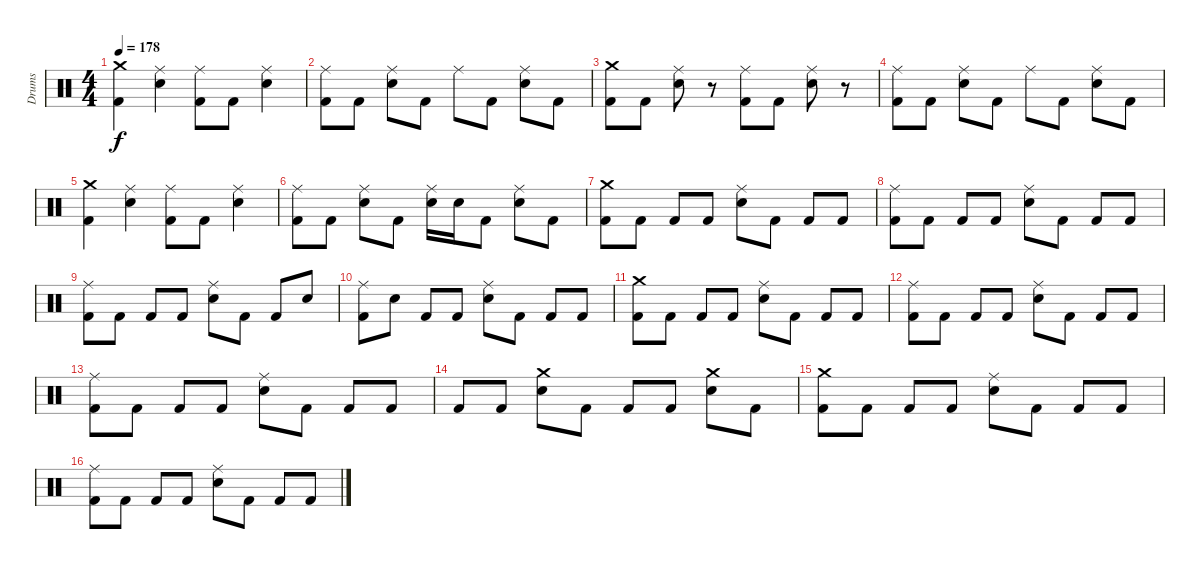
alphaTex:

\track ("Drums" "Drums") {instrument percussion}
\staff {score}
\articulation defaults
\ts (4 4)
\tempo 178
\clef neutral
\ks c
("Crash medium (hit)" "Kick (hit) 2").4{dy f} ("Ride (middle)" "Electric Snare (hit)").4 ("Ride (middle)" "Kick (hit) 2").8 "Kick (hit) 2".8 ("Ride (middle)" "Electric Snare (hit)").4 |
("Ride (middle)" "Kick (hit) 2").8 "Kick (hit) 2".8 ("Ride (middle)" "Electric Snare (hit)").8 "Kick (hit) 2".8 "Ride (middle)".8 "Kick (hit) 2".8 ("Ride (middle)" "Electric Snare (hit)").8 "Kick (hit) 2".8 |
("Crash medium (hit)" "Kick (hit) 2").8 "Kick (hit) 2".8 ("Ride (middle)" "Electric Snare (hit)").8 r.8 ("Ride (middle)" "Kick (hit) 2").8 "Kick (hit) 2".8 ("Ride (middle)" "Electric Snare (hit)").8 r.8 |
("Ride (middle)" "Kick (hit) 2").8 "Kick (hit) 2".8 ("Ride (middle)" "Electric Snare (hit)").8 "Kick (hit) 2".8 "Ride (middle)".8 "Kick (hit) 2".8 ("Ride (middle)" "Electric Snare (hit)").8 "Kick (hit) 2".8 |
("Crash medium (hit)" "Kick (hit) 2").4 ("Ride (middle)" "Electric Snare (hit)").4 ("Ride (middle)" "Kick (hit) 2").8 "Kick (hit) 2".8 ("Ride (middle)" "Electric Snare (hit)").4 |
("Ride (middle)" "Kick (hit) 2").8 "Kick (hit) 2".8 ("Ride (middle)" "Electric Snare (hit)").8 "Kick (hit) 2".8 ("Ride (middle)" "Electric Snare (hit)").16 "Electric Snare (hit)".16 "Kick (hit) 2".8 ("Ride (middle)" "Electric Snare (hit)").8 "Kick (hit) 2".8 |
\section ("" "")
("Crash medium (hit)" "Kick (hit) 2").8 "Kick (hit) 2".8 "Kick (hit) 2".8 "Kick (hit) 2".8 ("Ride (middle)" "Electric Snare (hit)").8 "Kick (hit) 2".8 "Kick (hit) 2".8 "Kick (hit) 2".8 |
("Ride (middle)" "Kick (hit) 2").8 "Kick (hit) 2".8 "Kick (hit) 2".8 "Kick (hit) 2".8 ("Ride (middle)" "Electric Snare (hit)").8 "Kick (hit) 2".8 "Kick (hit) 2".8 "Kick (hit) 2".8 |
("Ride (middle)" "Kick (hit) 2").8 "Kick (hit) 2".8 "Kick (hit) 2".8 "Kick (hit) 2".8 ("Ride (middle)" "Electric Snare (hit)").8 "Kick (hit) 2".8 "Kick (hit) 2".8 "Electric Snare (hit)".8 |
("Ride (middle)" "Kick (hit) 2").8 "Electric Snare (hit)".8 "Kick (hit) 2".8 "Kick (hit) 2".8 ("Ride (middle)" "Electric Snare (hit)").8 "Kick (hit) 2".8 "Kick (hit) 2".8 "Kick (hit) 2".8 |
("Crash medium (hit)" "Kick (hit) 2").8 "Kick (hit) 2".8 "Kick (hit) 2".8 "Kick (hit) 2".8 ("Ride (middle)" "Electric Snare (hit)").8 "Kick (hit) 2".8 "Kick (hit) 2".8 "Kick (hit) 2".8 |
("Ride (middle)" "Kick (hit) 2").8 "Kick (hit) 2".8 "Kick (hit) 2".8 "Kick (hit) 2".8 ("Ride (middle)" "Electric Snare (hit)").8 "Kick (hit) 2".8 "Kick (hit) 2".8 "Kick (hit) 2".8 |
("Ride (middle)" "Kick (hit) 2").8 "Kick (hit) 2".8 "Kick (hit) 2".8 "Kick (hit) 2".8 ("Ride (middle)" "Electric Snare (hit)").8 "Kick (hit) 2".8 "Kick (hit) 2".8 "Kick (hit) 2".8 |
"Kick (hit) 2".8 "Kick (hit) 2".8 ("Crash medium (hit)" "Electric Snare (hit)").8 "Kick (hit) 2".8 "Kick (hit) 2".8 "Kick (hit) 2".8 ("Crash medium (hit)" "Electric Snare (hit)").8 "Kick (hit) 2".8 |
("Crash medium (hit)" "Kick (hit) 2").8 "Kick (hit) 2".8 "Kick (hit) 2".8 "Kick (hit) 2".8 ("Ride (middle)" "Electric Snare (hit)").8 "Kick (hit) 2".8 "Kick (hit) 2".8 "Kick (hit) 2".8 |
("Ride (middle)" "Kick (hit) 2").8 "Kick (hit) 2".8 "Kick (hit) 2".8 "Kick (hit) 2".8 ("Ride (middle)" "Electric Snare (hit)").8 "Kick (hit) 2".8 "Kick (hit) 2".8 "Kick (hit) 2".8
